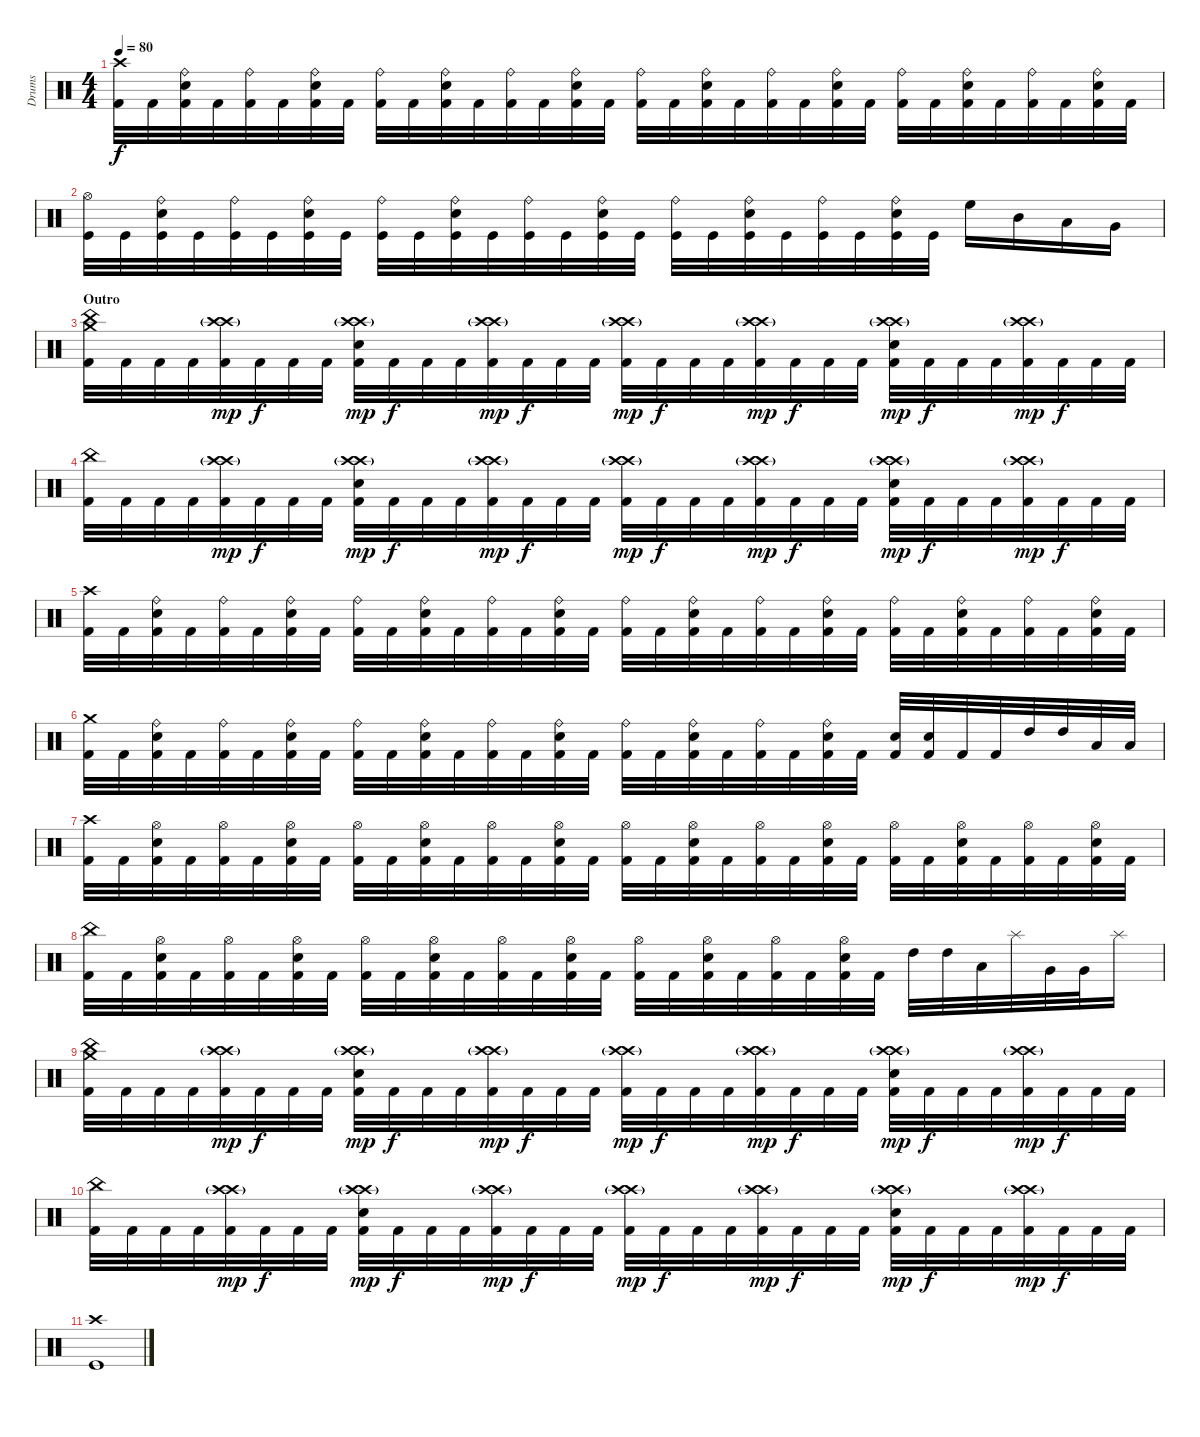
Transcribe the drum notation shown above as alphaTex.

\track ("Drums" "Drums") {instrument percussion}
\staff {score}
\articulation defaults
\ts (4 4)
\tempo 80
\clef neutral
\ks c
("Crash high (hit)" "Kick (hit) 2").32{dy f} "Kick (hit) 2".32 ("Ride (bell)" "Electric Snare (hit)" "Kick (hit) 2").32 "Kick (hit) 2".32 ("Ride (bell)" "Kick (hit) 2").32 "Kick (hit) 2".32 ("Ride (bell)" "Electric Snare (hit)" "Kick (hit) 2").32 "Kick (hit) 2".32 ("Ride (bell)" "Kick (hit) 2").32 "Kick (hit) 2".32 ("Ride (bell)" "Electric Snare (hit)" "Kick (hit) 2").32 "Kick (hit) 2".32 ("Ride (bell)" "Kick (hit) 2").32 "Kick (hit) 2".32 ("Ride (bell)" "Electric Snare (hit)" "Kick (hit) 2").32 "Kick (hit) 2".32 ("Ride (bell)" "Kick (hit) 2").32 "Kick (hit) 2".32 ("Ride (bell)" "Electric Snare (hit)" "Kick (hit) 2").32 "Kick (hit) 2".32 ("Ride (bell)" "Kick (hit) 2").32 "Kick (hit) 2".32 ("Ride (bell)" "Electric Snare (hit)" "Kick (hit) 2").32 "Kick (hit) 2".32 ("Ride (bell)" "Kick (hit) 2").32 "Kick (hit) 2".32 ("Ride (bell)" "Electric Snare (hit)" "Kick (hit) 2").32 "Kick (hit) 2".32 ("Ride (bell)" "Kick (hit) 2").32 "Kick (hit) 2".32 ("Ride (bell)" "Electric Snare (hit)" "Kick (hit) 2").32 "Kick (hit) 2".32 |
("Hi-Hat (open)" "Kick (hit)").32 "Kick (hit)".32 ("Ride (bell)" "Electric Snare (hit)" "Kick (hit)").32 "Kick (hit)".32 ("Ride (bell)" "Kick (hit)").32 "Kick (hit)".32 ("Ride (bell)" "Electric Snare (hit)" "Kick (hit)").32 "Kick (hit)".32 ("Ride (bell)" "Kick (hit)").32 "Kick (hit)".32 ("Ride (bell)" "Electric Snare (hit)" "Kick (hit)").32 "Kick (hit)".32 ("Ride (bell)" "Kick (hit)").32 "Kick (hit)".32 ("Ride (bell)" "Electric Snare (hit)" "Kick (hit)").32 "Kick (hit)".32 ("Ride (bell)" "Kick (hit)").32 "Kick (hit)".32 ("Ride (bell)" "Electric Snare (hit)" "Kick (hit)").32 "Kick (hit)".32 ("Ride (bell)" "Kick (hit)").32 "Kick (hit)".32 ("Ride (bell)" "Electric Snare (hit)" "Kick (hit)").32 "Kick (hit)".32 "High Floor Tom (hit)".16 "Mid Tom (hit)".16 "Low Tom (hit)".16 "Very Low Tom (hit)".16 |
\section ("" "Outro")
("China (hit)" "Crash medium (hit)" "Kick (hit) 2").32 "Kick (hit) 2".32 "Kick (hit) 2".32 "Kick (hit) 2".32 ("Crash high (hit)"{g} "Crash high (hit)"{g} "Kick (hit) 2").32{dy mp} "Kick (hit) 2".32{dy f} "Kick (hit) 2".32 "Kick (hit) 2".32 ("Crash high (hit)"{g} "Crash high (hit)"{g} "Electric Snare (hit)" "Kick (hit) 2").32{dy mp} "Kick (hit) 2".32{dy f} "Kick (hit) 2".32 "Kick (hit) 2".32 ("Crash high (hit)"{g} "Crash high (hit)"{g} "Kick (hit) 2").32{dy mp} "Kick (hit) 2".32{dy f} "Kick (hit) 2".32 "Kick (hit) 2".32 ("Crash high (hit)"{g} "Crash high (hit)"{g} "Kick (hit) 2").32{dy mp} "Kick (hit) 2".32{dy f} "Kick (hit) 2".32 "Kick (hit) 2".32 ("Crash high (hit)"{g} "Crash high (hit)"{g} "Kick (hit) 2").32{dy mp} "Kick (hit) 2".32{dy f} "Kick (hit) 2".32 "Kick (hit) 2".32 ("Crash high (hit)"{g} "Crash high (hit)"{g} "Electric Snare (hit)" "Kick (hit) 2").32{dy mp} "Kick (hit) 2".32{dy f} "Kick (hit) 2".32 "Kick (hit) 2".32 ("Crash high (hit)"{g} "Crash high (hit)"{g} "Kick (hit) 2").32{dy mp} "Kick (hit) 2".32{dy f} "Kick (hit) 2".32 "Kick (hit) 2".32 |
("China (hit)" "Kick (hit) 2").32 "Kick (hit) 2".32 "Kick (hit) 2".32 "Kick (hit) 2".32 ("Crash high (hit)"{g} "Crash high (hit)"{g} "Kick (hit) 2").32{dy mp} "Kick (hit) 2".32{dy f} "Kick (hit) 2".32 "Kick (hit) 2".32 ("Crash high (hit)"{g} "Crash high (hit)"{g} "Electric Snare (hit)" "Kick (hit) 2").32{dy mp} "Kick (hit) 2".32{dy f} "Kick (hit) 2".32 "Kick (hit) 2".32 ("Crash high (hit)"{g} "Crash high (hit)"{g} "Kick (hit) 2").32{dy mp} "Kick (hit) 2".32{dy f} "Kick (hit) 2".32 "Kick (hit) 2".32 ("Crash high (hit)"{g} "Crash high (hit)"{g} "Kick (hit) 2").32{dy mp} "Kick (hit) 2".32{dy f} "Kick (hit) 2".32 "Kick (hit) 2".32 ("Crash high (hit)"{g} "Crash high (hit)"{g} "Kick (hit) 2").32{dy mp} "Kick (hit) 2".32{dy f} "Kick (hit) 2".32 "Kick (hit) 2".32 ("Crash high (hit)"{g} "Crash high (hit)"{g} "Electric Snare (hit)" "Kick (hit) 2").32{dy mp} "Kick (hit) 2".32{dy f} "Kick (hit) 2".32 "Kick (hit) 2".32 ("Crash high (hit)"{g} "Crash high (hit)"{g} "Kick (hit) 2").32{dy mp} "Kick (hit) 2".32{dy f} "Kick (hit) 2".32 "Kick (hit) 2".32 |
("Crash high (hit)" "Kick (hit) 2").32 "Kick (hit) 2".32 ("Ride (bell)" "Electric Snare (hit)" "Kick (hit) 2").32 "Kick (hit) 2".32 ("Ride (bell)" "Kick (hit) 2").32 "Kick (hit) 2".32 ("Ride (bell)" "Electric Snare (hit)" "Kick (hit) 2").32 "Kick (hit) 2".32 ("Ride (bell)" "Kick (hit) 2").32 "Kick (hit) 2".32 ("Ride (bell)" "Electric Snare (hit)" "Kick (hit) 2").32 "Kick (hit) 2".32 ("Ride (bell)" "Kick (hit) 2").32 "Kick (hit) 2".32 ("Ride (bell)" "Electric Snare (hit)" "Kick (hit) 2").32 "Kick (hit) 2".32 ("Ride (bell)" "Kick (hit) 2").32 "Kick (hit) 2".32 ("Ride (bell)" "Electric Snare (hit)" "Kick (hit) 2").32 "Kick (hit) 2".32 ("Ride (bell)" "Kick (hit) 2").32 "Kick (hit) 2".32 ("Ride (bell)" "Electric Snare (hit)" "Kick (hit) 2").32 "Kick (hit) 2".32 ("Ride (bell)" "Kick (hit) 2").32 "Kick (hit) 2".32 ("Ride (bell)" "Electric Snare (hit)" "Kick (hit) 2").32 "Kick (hit) 2".32 ("Ride (bell)" "Kick (hit) 2").32 "Kick (hit) 2".32 ("Ride (bell)" "Electric Snare (hit)" "Kick (hit) 2").32 "Kick (hit) 2".32 |
("Crash medium (hit)" "Kick (hit) 2").32 "Kick (hit) 2".32 ("Ride (bell)" "Electric Snare (hit)" "Kick (hit) 2").32 "Kick (hit) 2".32 ("Ride (bell)" "Kick (hit) 2").32 "Kick (hit) 2".32 ("Ride (bell)" "Electric Snare (hit)" "Kick (hit) 2").32 "Kick (hit) 2".32 ("Ride (bell)" "Kick (hit) 2").32 "Kick (hit) 2".32 ("Ride (bell)" "Electric Snare (hit)" "Kick (hit) 2").32 "Kick (hit) 2".32 ("Ride (bell)" "Kick (hit) 2").32 "Kick (hit) 2".32 ("Ride (bell)" "Electric Snare (hit)" "Kick (hit) 2").32 "Kick (hit) 2".32 ("Ride (bell)" "Kick (hit) 2").32 "Kick (hit) 2".32 ("Ride (bell)" "Electric Snare (hit)" "Kick (hit) 2").32 "Kick (hit) 2".32 ("Ride (bell)" "Kick (hit) 2").32 "Kick (hit) 2".32 ("Ride (bell)" "Electric Snare (hit)" "Kick (hit) 2").32 "Kick (hit) 2".32 ("Electric Snare (hit)" "Kick (hit) 2").32 ("Electric Snare (hit)" "Kick (hit) 2").32 "Kick (hit) 2".32 "Kick (hit) 2".32 "High Tom (hit)".32 "High Tom (hit)".32 "Low Tom (hit)".32 "Low Tom (hit)".32 |
("Crash high (hit)" "Kick (hit) 2").32 "Kick (hit) 2".32 ("Hi-Hat (open)" "Electric Snare (hit)" "Kick (hit) 2").32 "Kick (hit) 2".32 ("Hi-Hat (open)" "Kick (hit) 2").32 "Kick (hit) 2".32 ("Hi-Hat (open)" "Electric Snare (hit)" "Kick (hit) 2").32 "Kick (hit) 2".32 ("Hi-Hat (open)" "Kick (hit) 2").32 "Kick (hit) 2".32 ("Hi-Hat (open)" "Electric Snare (hit)" "Kick (hit) 2").32 "Kick (hit) 2".32 ("Hi-Hat (open)" "Kick (hit) 2").32 "Kick (hit) 2".32 ("Hi-Hat (open)" "Electric Snare (hit)" "Kick (hit) 2").32 "Kick (hit) 2".32 ("Hi-Hat (open)" "Kick (hit) 2").32 "Kick (hit) 2".32 ("Hi-Hat (open)" "Electric Snare (hit)" "Kick (hit) 2").32 "Kick (hit) 2".32 ("Hi-Hat (open)" "Kick (hit) 2").32 "Kick (hit) 2".32 ("Hi-Hat (open)" "Electric Snare (hit)" "Kick (hit) 2").32 "Kick (hit) 2".32 ("Hi-Hat (open)" "Kick (hit) 2").32 "Kick (hit) 2".32 ("Hi-Hat (open)" "Electric Snare (hit)" "Kick (hit) 2").32 "Kick (hit) 2".32 ("Hi-Hat (open)" "Kick (hit) 2").32 "Kick (hit) 2".32 ("Hi-Hat (open)" "Electric Snare (hit)" "Kick (hit) 2").32 "Kick (hit) 2".32 |
("China (hit)" "Kick (hit) 2").32 "Kick (hit) 2".32 ("Hi-Hat (open)" "Electric Snare (hit)" "Kick (hit) 2").32 "Kick (hit) 2".32 ("Hi-Hat (open)" "Kick (hit) 2").32 "Kick (hit) 2".32 ("Hi-Hat (open)" "Electric Snare (hit)" "Kick (hit) 2").32 "Kick (hit) 2".32 ("Hi-Hat (open)" "Kick (hit) 2").32 "Kick (hit) 2".32 ("Hi-Hat (open)" "Electric Snare (hit)" "Kick (hit) 2").32 "Kick (hit) 2".32 ("Hi-Hat (open)" "Kick (hit) 2").32 "Kick (hit) 2".32 ("Hi-Hat (open)" "Electric Snare (hit)" "Kick (hit) 2").32 "Kick (hit) 2".32 ("Hi-Hat (open)" "Kick (hit) 2").32 "Kick (hit) 2".32 ("Hi-Hat (open)" "Electric Snare (hit)" "Kick (hit) 2").32 "Kick (hit) 2".32 ("Hi-Hat (open)" "Kick (hit) 2").32 "Kick (hit) 2".32 ("Hi-Hat (open)" "Electric Snare (hit)" "Kick (hit) 2").32 "Kick (hit) 2".32 "High Tom (hit)".32 "High Tom (hit)".32 "Low Tom (hit)".32 "Splash (hit)".32 "Very Low Tom (hit)".32 "Very Low Tom (hit)".32 "Splash (hit)".16 |
("China (hit)" "Crash medium (hit)" "Kick (hit) 2").32 "Kick (hit) 2".32 "Kick (hit) 2".32 "Kick (hit) 2".32 ("Crash high (hit)"{g} "Crash high (hit)"{g} "Kick (hit) 2").32{dy mp} "Kick (hit) 2".32{dy f} "Kick (hit) 2".32 "Kick (hit) 2".32 ("Crash high (hit)"{g} "Crash high (hit)"{g} "Electric Snare (hit)" "Kick (hit) 2").32{dy mp} "Kick (hit) 2".32{dy f} "Kick (hit) 2".32 "Kick (hit) 2".32 ("Crash high (hit)"{g} "Crash high (hit)"{g} "Kick (hit) 2").32{dy mp} "Kick (hit) 2".32{dy f} "Kick (hit) 2".32 "Kick (hit) 2".32 ("Crash high (hit)"{g} "Crash high (hit)"{g} "Kick (hit) 2").32{dy mp} "Kick (hit) 2".32{dy f} "Kick (hit) 2".32 "Kick (hit) 2".32 ("Crash high (hit)"{g} "Crash high (hit)"{g} "Kick (hit) 2").32{dy mp} "Kick (hit) 2".32{dy f} "Kick (hit) 2".32 "Kick (hit) 2".32 ("Crash high (hit)"{g} "Crash high (hit)"{g} "Electric Snare (hit)" "Kick (hit) 2").32{dy mp} "Kick (hit) 2".32{dy f} "Kick (hit) 2".32 "Kick (hit) 2".32 ("Crash high (hit)"{g} "Crash high (hit)"{g} "Kick (hit) 2").32{dy mp} "Kick (hit) 2".32{dy f} "Kick (hit) 2".32 "Kick (hit) 2".32 |
("China (hit)" "Kick (hit) 2").32 "Kick (hit) 2".32 "Kick (hit) 2".32 "Kick (hit) 2".32 ("Crash high (hit)"{g} "Crash high (hit)"{g} "Kick (hit) 2").32{dy mp} "Kick (hit) 2".32{dy f} "Kick (hit) 2".32 "Kick (hit) 2".32 ("Crash high (hit)"{g} "Crash high (hit)"{g} "Electric Snare (hit)" "Kick (hit) 2").32{dy mp} "Kick (hit) 2".32{dy f} "Kick (hit) 2".32 "Kick (hit) 2".32 ("Crash high (hit)"{g} "Crash high (hit)"{g} "Kick (hit) 2").32{dy mp} "Kick (hit) 2".32{dy f} "Kick (hit) 2".32 "Kick (hit) 2".32 ("Crash high (hit)"{g} "Crash high (hit)"{g} "Kick (hit) 2").32{dy mp} "Kick (hit) 2".32{dy f} "Kick (hit) 2".32 "Kick (hit) 2".32 ("Crash high (hit)"{g} "Crash high (hit)"{g} "Kick (hit) 2").32{dy mp} "Kick (hit) 2".32{dy f} "Kick (hit) 2".32 "Kick (hit) 2".32 ("Crash high (hit)"{g} "Crash high (hit)"{g} "Electric Snare (hit)" "Kick (hit) 2").32{dy mp} "Kick (hit) 2".32{dy f} "Kick (hit) 2".32 "Kick (hit) 2".32 ("Crash high (hit)"{g} "Crash high (hit)"{g} "Kick (hit) 2").32{dy mp} "Kick (hit) 2".32{dy f} "Kick (hit) 2".32 "Kick (hit) 2".32 |
("Crash high (hit)" "Kick (hit)").1
